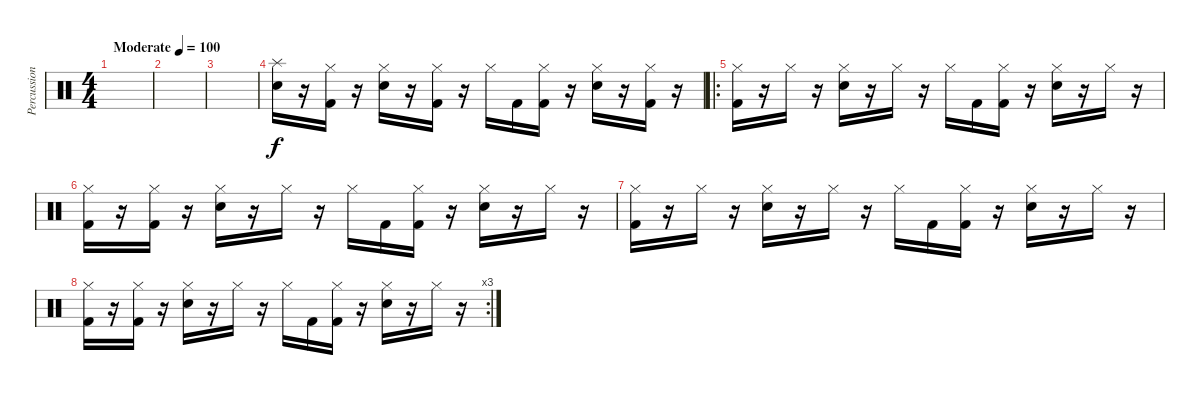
\track ("Percussion" "Percussion") {instrument percussion}
\staff {score}
\articulation defaults
\ts (4 4)
\tempo (100 "Moderate")
\clef neutral
\ks c
|
|
|
("Splash (hit)" "Electric Snare (hit)").16 r.16 ("Hi-Hat (closed)" "Kick (hit) 2").16 r.16 ("Hi-Hat (closed)" "Electric Snare (hit)").16 r.16 ("Hi-Hat (closed)" "Kick (hit) 2").16 r.16 "Hi-Hat (closed)".16 "Kick (hit) 2".16 ("Hi-Hat (closed)" "Kick (hit) 2").16 r.16 ("Hi-Hat (closed)" "Electric Snare (hit)").16 r.16 ("Hi-Hat (closed)" "Kick (hit) 2").16 r.16 |
\ro
("Hi-Hat (closed)" "Kick (hit) 2").16 r.16 "Hi-Hat (closed)".16 r.16 ("Hi-Hat (closed)" "Electric Snare (hit)").16 r.16 "Hi-Hat (closed)".16 r.16 "Hi-Hat (closed)".16 "Kick (hit) 2".16 ("Hi-Hat (closed)" "Kick (hit) 2").16 r.16 ("Hi-Hat (closed)" "Electric Snare (hit)").16 r.16 "Hi-Hat (closed)".16 r.16 |
("Hi-Hat (closed)" "Kick (hit) 2").16 r.16 ("Hi-Hat (closed)" "Kick (hit) 2").16 r.16 ("Hi-Hat (closed)" "Electric Snare (hit)").16 r.16 "Hi-Hat (closed)".16 r.16 "Hi-Hat (closed)".16 "Kick (hit) 2".16 ("Hi-Hat (closed)" "Kick (hit) 2").16 r.16 ("Hi-Hat (closed)" "Electric Snare (hit)").16 r.16 "Hi-Hat (closed)".16 r.16 |
("Hi-Hat (closed)" "Kick (hit) 2").16 r.16 "Hi-Hat (closed)".16 r.16 ("Hi-Hat (closed)" "Electric Snare (hit)").16 r.16 "Hi-Hat (closed)".16 r.16 "Hi-Hat (closed)".16 "Kick (hit) 2".16 ("Hi-Hat (closed)" "Kick (hit) 2").16 r.16 ("Hi-Hat (closed)" "Electric Snare (hit)").16 r.16 "Hi-Hat (closed)".16 r.16 |
\rc 3
("Hi-Hat (closed)" "Kick (hit) 2").16 r.16 ("Hi-Hat (closed)" "Kick (hit) 2").16 r.16 ("Hi-Hat (closed)" "Electric Snare (hit)").16 r.16 "Hi-Hat (closed)".16 r.16 "Hi-Hat (closed)".16 "Kick (hit) 2".16 ("Hi-Hat (closed)" "Kick (hit) 2").16 r.16 ("Hi-Hat (closed)" "Electric Snare (hit)").16 r.16 "Hi-Hat (closed)".16 r.16
